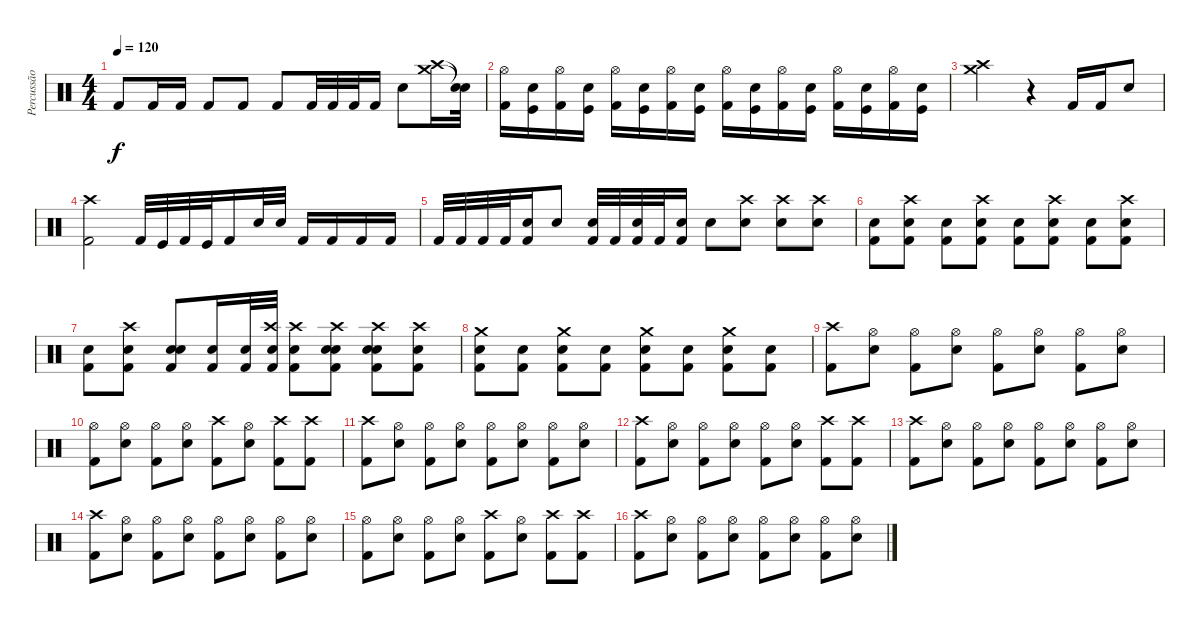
\track ("Percussão" "Percussão") {instrument percussion}
\staff {score}
\articulation defaults
\ts (4 4)
\tempo 120
\clef neutral
\ks c "Kick (hit) 2".8{dy f} "Kick (hit) 2".16 "Kick (hit) 2".16 "Kick (hit) 2".8 "Kick (hit) 2".8 "Kick (hit) 2".8 "Kick (hit) 2".32 "Kick (hit) 2".32 "Kick (hit) 2".32 "Kick (hit) 2".16 "Snare (hit) 2".8
("Crash high (hit)" "Crash medium (hit)").16 ("Snare (hit)"{t} "Snare (hit)"{t}).32 |
("Hi-Hat (open)" "Kick (hit) 2").16 ("Snare (hit) 2" "Kick (hit)").16 ("Hi-Hat (open)" "Kick (hit) 2").16 ("Snare (hit) 2" "Kick (hit)").16 ("Hi-Hat (open)" "Kick (hit) 2").16 ("Snare (hit) 2" "Kick (hit)").16 ("Hi-Hat (open)" "Kick (hit) 2").16 ("Snare (hit) 2" "Kick (hit)").16 ("Hi-Hat (open)" "Kick (hit) 2").16 ("Snare (hit) 2" "Kick (hit)").16 ("Hi-Hat (open)" "Kick (hit) 2").16 ("Snare (hit) 2" "Kick (hit)").16 ("Hi-Hat (open)" "Kick (hit) 2").16 ("Snare (hit) 2" "Kick (hit)").16 ("Hi-Hat (open)" "Kick (hit) 2").16 ("Snare (hit) 2" "Kick (hit)").16 |
("Crash high (hit)" "Crash medium (hit)").2 r.4 "Kick (hit) 2".16 "Kick (hit) 2".16 "Snare (hit) 2".8 |
("Crash high (hit)" "Kick (hit) 2").2 "Kick (hit) 2".32 "Kick (hit)".32 "Kick (hit) 2".32 "Kick (hit)".32 "Kick (hit) 2".16 "Snare (hit) 2".32 "Snare (hit) 2".32 "Kick (hit) 2".16 "Kick (hit) 2".16 "Kick (hit) 2".16 "Kick (hit) 2".16 |
"Kick (hit) 2".32 "Kick (hit) 2".32 "Kick (hit) 2".32 "Kick (hit) 2".32 ("Kick (hit) 2" "Snare (hit) 2").16 "Snare (hit) 2".8 ("Kick (hit) 2" "Snare (hit) 2").32 "Kick (hit) 2".32 ("Snare (hit) 2" "Kick (hit) 2").32 "Kick (hit) 2".32 ("Kick (hit) 2" "Snare (hit) 2").16 "Snare (hit) 2".8 ("Crash high (hit)" "Snare (hit) 2").8 ("Snare (hit) 2" "Crash high (hit)").8 ("Crash high (hit)" "Snare (hit) 2").8 |
("Snare (hit) 2" "Kick (hit) 2").8 ("Crash high (hit)" "Snare (hit) 2" "Kick (hit) 2").8 ("Snare (hit) 2" "Kick (hit) 2").8 ("Crash high (hit)" "Snare (hit) 2" "Kick (hit) 2").8 ("Snare (hit) 2" "Kick (hit) 2").8 ("Crash high (hit)" "Snare (hit) 2" "Kick (hit) 2").8 ("Snare (hit) 2" "Kick (hit) 2").8 ("Crash high (hit)" "Snare (hit) 2" "Kick (hit) 2").8 |
("Snare (hit) 2" "Kick (hit) 2").8 ("Crash high (hit)" "Snare (hit) 2" "Kick (hit) 2").8 ("Snare (hit) 2" "Electric Snare (hit)" "Kick (hit) 2").8 ("Snare (hit) 2" "Kick (hit) 2").16 ("Snare (hit) 2" "Kick (hit) 2").32 ("Crash high (hit)" "Electric Snare (hit)" "Kick (hit) 2").32 ("Crash high (hit)" "Snare (hit) 2" "Kick (hit) 2").8 ("Snare (hit) 2" "Crash high (hit)" "Snare (hit) 2" "Kick (hit) 2").8 ("Snare (hit) 2" "Crash high (hit)" "Snare (hit) 2" "Kick (hit) 2").8 ("Crash high (hit)" "Snare (hit) 2" "Kick (hit) 2").8 |
("Crash medium (hit)" "Snare (hit) 2" "Kick (hit) 2").8 ("Snare (hit) 2" "Kick (hit) 2").8 ("Crash medium (hit)" "Snare (hit) 2" "Kick (hit) 2").8 ("Snare (hit) 2" "Kick (hit) 2").8 ("Crash medium (hit)" "Snare (hit) 2" "Kick (hit) 2").8 ("Snare (hit) 2" "Kick (hit) 2").8 ("Crash medium (hit)" "Snare (hit) 2" "Kick (hit) 2").8 ("Snare (hit) 2" "Kick (hit) 2").8 |
("Crash high (hit)" "Kick (hit) 2").8 ("Hi-Hat (open)" "Snare (hit) 2").8 ("Hi-Hat (open)" "Kick (hit) 2").8 ("Hi-Hat (open)" "Snare (hit) 2").8 ("Hi-Hat (open)" "Kick (hit) 2").8 ("Hi-Hat (open)" "Snare (hit) 2").8 ("Hi-Hat (open)" "Kick (hit) 2").8 ("Hi-Hat (open)" "Snare (hit) 2").8 |
("Hi-Hat (open)" "Kick (hit) 2").8 ("Hi-Hat (open)" "Snare (hit) 2").8 ("Hi-Hat (open)" "Kick (hit) 2").8 ("Hi-Hat (open)" "Snare (hit) 2").8 ("Crash high (hit)" "Kick (hit) 2").8 ("Hi-Hat (open)" "Snare (hit) 2").8 ("Crash high (hit)" "Kick (hit) 2").8 ("Crash high (hit)" "Kick (hit) 2").8 |
("Crash high (hit)" "Kick (hit) 2").8 ("Hi-Hat (open)" "Snare (hit) 2").8 ("Hi-Hat (open)" "Kick (hit) 2").8 ("Hi-Hat (open)" "Snare (hit) 2").8 ("Hi-Hat (open)" "Kick (hit) 2").8 ("Hi-Hat (open)" "Snare (hit) 2").8 ("Hi-Hat (open)" "Kick (hit) 2").8 ("Hi-Hat (open)" "Snare (hit) 2").8 |
("Crash high (hit)" "Kick (hit) 2").8 ("Hi-Hat (open)" "Snare (hit) 2").8 ("Hi-Hat (open)" "Kick (hit) 2").8 ("Hi-Hat (open)" "Snare (hit) 2").8 ("Hi-Hat (open)" "Kick (hit) 2").8 ("Hi-Hat (open)" "Snare (hit) 2").8 ("Crash high (hit)" "Kick (hit) 2").8 ("Crash high (hit)" "Kick (hit) 2").8 |
("Crash high (hit)" "Kick (hit) 2").8 ("Hi-Hat (open)" "Snare (hit) 2").8 ("Hi-Hat (open)" "Kick (hit) 2").8 ("Hi-Hat (open)" "Snare (hit) 2").8 ("Hi-Hat (open)" "Kick (hit) 2").8 ("Hi-Hat (open)" "Snare (hit) 2").8 ("Hi-Hat (open)" "Kick (hit) 2").8 ("Hi-Hat (open)" "Snare (hit) 2").8 |
("Crash high (hit)" "Kick (hit) 2").8 ("Hi-Hat (open)" "Snare (hit) 2").8 ("Hi-Hat (open)" "Kick (hit) 2").8 ("Hi-Hat (open)" "Snare (hit) 2").8 ("Hi-Hat (open)" "Kick (hit) 2").8 ("Hi-Hat (open)" "Snare (hit) 2").8 ("Hi-Hat (open)" "Kick (hit) 2").8 ("Hi-Hat (open)" "Snare (hit) 2").8 |
("Hi-Hat (open)" "Kick (hit) 2").8 ("Hi-Hat (open)" "Snare (hit) 2").8 ("Hi-Hat (open)" "Kick (hit) 2").8 ("Hi-Hat (open)" "Snare (hit) 2").8 ("Crash high (hit)" "Kick (hit) 2").8 ("Hi-Hat (open)" "Snare (hit) 2").8 ("Crash high (hit)" "Kick (hit) 2").8 ("Crash high (hit)" "Kick (hit) 2").8 |
("Crash high (hit)" "Kick (hit) 2").8 ("Hi-Hat (open)" "Snare (hit) 2").8 ("Hi-Hat (open)" "Kick (hit) 2").8 ("Hi-Hat (open)" "Snare (hit) 2").8 ("Hi-Hat (open)" "Kick (hit) 2").8 ("Hi-Hat (open)" "Snare (hit) 2").8 ("Hi-Hat (open)" "Kick (hit) 2").8 ("Hi-Hat (open)" "Snare (hit) 2").8
